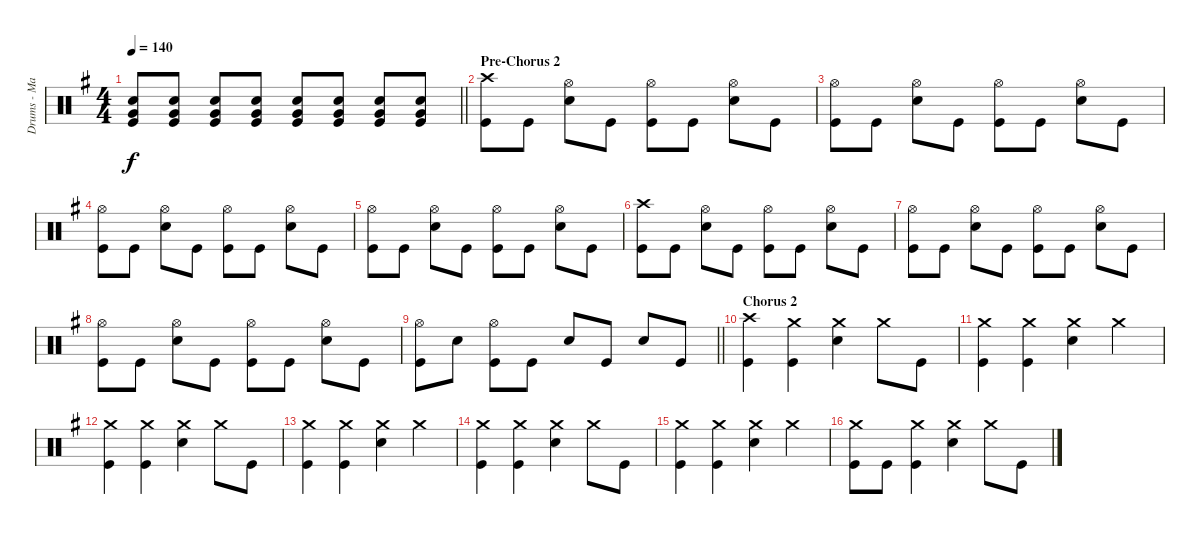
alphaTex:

\track ("Drums - Mark O'Connell" "Drums - Ma") {instrument percussion}
\staff {score}
\articulation defaults
\ts (4 4)
\tempo 140
\clef neutral
\barLineRight lightlight
\ks g
("Very Low Tom (hit)" "Snare (hit) 2" "Kick (hit)").8{dy f volume 14} ("Very Low Tom (hit)" "Snare (hit) 2" "Kick (hit)").8 ("Very Low Tom (hit)" "Snare (hit) 2" "Kick (hit)").8 ("Very Low Tom (hit)" "Snare (hit) 2" "Kick (hit)").8 ("Very Low Tom (hit)" "Snare (hit) 2" "Kick (hit)").8 ("Very Low Tom (hit)" "Snare (hit) 2" "Kick (hit)").8 ("Very Low Tom (hit)" "Snare (hit) 2" "Kick (hit)").8 ("Very Low Tom (hit)" "Snare (hit) 2" "Kick (hit)").8 |
\section ("" "Pre-Chorus 2")
("Crash high (hit)" "Kick (hit)").8 "Kick (hit)".8 ("Hi-Hat (open)" "Snare (hit) 2").8 "Kick (hit)".8 ("Hi-Hat (open)" "Kick (hit)").8 "Kick (hit)".8 ("Hi-Hat (open)" "Snare (hit) 2").8 "Kick (hit)".8 |
("Hi-Hat (open)" "Kick (hit)").8 "Kick (hit)".8 ("Hi-Hat (open)" "Snare (hit) 2").8 "Kick (hit)".8 ("Hi-Hat (open)" "Kick (hit)").8 "Kick (hit)".8 ("Hi-Hat (open)" "Snare (hit) 2").8 "Kick (hit)".8 |
("Hi-Hat (open)" "Kick (hit)").8 "Kick (hit)".8 ("Hi-Hat (open)" "Snare (hit) 2").8 "Kick (hit)".8 ("Hi-Hat (open)" "Kick (hit)").8 "Kick (hit)".8 ("Hi-Hat (open)" "Snare (hit) 2").8 "Kick (hit)".8 |
("Hi-Hat (open)" "Kick (hit)").8 "Kick (hit)".8 ("Hi-Hat (open)" "Snare (hit) 2").8 "Kick (hit)".8 ("Hi-Hat (open)" "Kick (hit)").8 "Kick (hit)".8 ("Hi-Hat (open)" "Snare (hit) 2").8 "Kick (hit)".8 |
("Crash high (hit)" "Kick (hit)").8 "Kick (hit)".8 ("Hi-Hat (open)" "Snare (hit) 2").8 "Kick (hit)".8 ("Hi-Hat (open)" "Kick (hit)").8 "Kick (hit)".8 ("Hi-Hat (open)" "Snare (hit) 2").8 "Kick (hit)".8 |
("Hi-Hat (open)" "Kick (hit)").8 "Kick (hit)".8 ("Hi-Hat (open)" "Snare (hit) 2").8 "Kick (hit)".8 ("Hi-Hat (open)" "Kick (hit)").8 "Kick (hit)".8 ("Hi-Hat (open)" "Snare (hit) 2").8 "Kick (hit)".8 |
("Hi-Hat (open)" "Kick (hit)").8 "Kick (hit)".8 ("Hi-Hat (open)" "Snare (hit) 2").8 "Kick (hit)".8 ("Hi-Hat (open)" "Kick (hit)").8 "Kick (hit)".8 ("Hi-Hat (open)" "Snare (hit) 2").8 "Kick (hit)".8 |
\barLineRight lightlight
("Hi-Hat (open)" "Kick (hit)").8 "Snare (hit) 2".8 ("Hi-Hat (open)" "Kick (hit)").8 "Kick (hit)".8 "Snare (hit) 2".8 "Kick (hit)".8 "Snare (hit) 2".8 "Kick (hit)".8 |
\section ("" "Chorus 2")
("Crash high (hit)" "Kick (hit)").4 ("Crash medium (hit)" "Kick (hit)").4 ("Crash medium (hit)" "Snare (hit) 2").4 "Crash medium (hit)".8 "Kick (hit)".8 |
("Crash medium (hit)" "Kick (hit)").4 ("Crash medium (hit)" "Kick (hit)").4 ("Crash medium (hit)" "Snare (hit) 2").4 "Crash medium (hit)".4 |
("Crash medium (hit)" "Kick (hit)").4 ("Crash medium (hit)" "Kick (hit)").4 ("Crash medium (hit)" "Snare (hit) 2").4 "Crash medium (hit)".8 "Kick (hit)".8 |
("Crash medium (hit)" "Kick (hit)").4 ("Crash medium (hit)" "Kick (hit)").4 ("Crash medium (hit)" "Snare (hit) 2").4 "Crash medium (hit)".4 |
("Crash medium (hit)" "Kick (hit)").4 ("Crash medium (hit)" "Kick (hit)").4 ("Crash medium (hit)" "Snare (hit) 2").4 "Crash medium (hit)".8 "Kick (hit)".8 |
("Crash medium (hit)" "Kick (hit)").4 ("Crash medium (hit)" "Kick (hit)").4 ("Crash medium (hit)" "Snare (hit) 2").4 "Crash medium (hit)".4 |
("Crash medium (hit)" "Kick (hit)").8 "Kick (hit)".8 ("Crash medium (hit)" "Kick (hit)").4 ("Crash medium (hit)" "Snare (hit) 2").4 "Crash medium (hit)".8 "Kick (hit)".8
